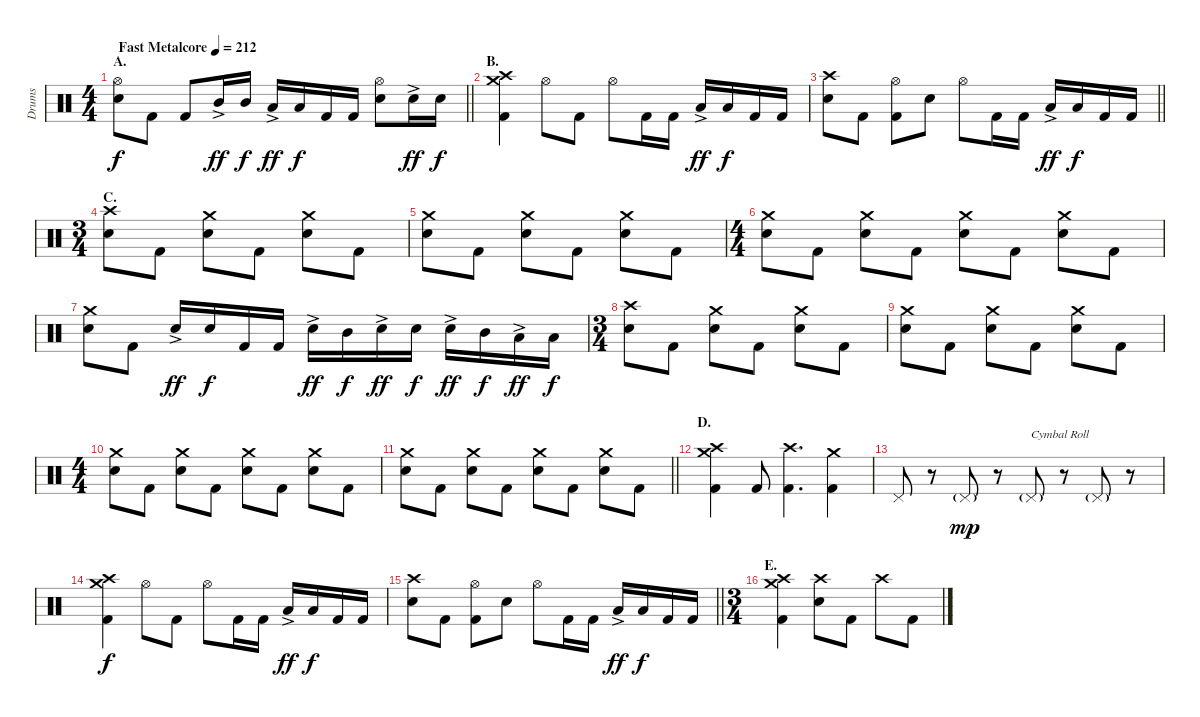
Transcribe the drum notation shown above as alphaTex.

\track ("Drums" "Drums") {instrument percussion}
\staff {score}
\articulation defaults
\ts (4 4)
\section ("" "A.")
\tempo (212 "Fast Metalcore")
\clef neutral
\barLineRight lightlight
\ks c
("Hi-Hat (open)" "Electric Snare (hit)").8{dy f} "Kick (hit) 2".8 "Kick (hit) 2".8 "Mid Tom (hit)"{ac}.16{dy ff} "Mid Tom (hit)".16{dy f} "Low Tom (hit)"{ac}.16{dy ff} "Low Tom (hit)".16{dy f} "Kick (hit) 2".16 "Kick (hit) 2".16 ("Hi-Hat (open)" "Electric Snare (hit)").8 "Electric Snare (hit)"{ac}.16{dy ff} "Electric Snare (hit)".16{dy f} |
\section ("" "B.")
("Crash medium (hit)" "Crash high (hit)" "Kick (hit) 2").4 "Hi-Hat (open)".8 "Kick (hit) 2".8 "Hi-Hat (open)".8 "Kick (hit) 2".16 "Kick (hit) 2".16 "Low Tom (hit)"{ac}.16{dy ff} "Low Tom (hit)".16{dy f} "Kick (hit) 2".16 "Kick (hit) 2".16 |
\barLineRight lightlight
("Crash high (hit)" "Electric Snare (hit)").8 "Kick (hit) 2".8 ("Hi-Hat (open)" "Kick (hit) 2").8 "Electric Snare (hit)".8 "Hi-Hat (open)".8 "Kick (hit) 2".16 "Kick (hit) 2".16 "Low Tom (hit)"{ac}.16{dy ff} "Low Tom (hit)".16{dy f} "Kick (hit) 2".16 "Kick (hit) 2".16 |
\ts (3 4)
\section ("" "C.")
("Crash high (hit)" "Electric Snare (hit)").8 "Kick (hit) 2".8 ("Crash medium (hit)" "Electric Snare (hit)").8 "Kick (hit) 2".8 ("Crash medium (hit)" "Electric Snare (hit)").8 "Kick (hit) 2".8 |
("Crash medium (hit)" "Electric Snare (hit)").8 "Kick (hit) 2".8 ("Crash medium (hit)" "Electric Snare (hit)").8 "Kick (hit) 2".8 ("Crash medium (hit)" "Electric Snare (hit)").8 "Kick (hit) 2".8 |
\ts (4 4)
("Crash medium (hit)" "Electric Snare (hit)").8 "Kick (hit) 2".8 ("Crash medium (hit)" "Electric Snare (hit)").8 "Kick (hit) 2".8 ("Crash medium (hit)" "Electric Snare (hit)").8 "Kick (hit) 2".8 ("Crash medium (hit)" "Electric Snare (hit)").8 "Kick (hit) 2".8 |
("Crash medium (hit)" "Electric Snare (hit)").8 "Kick (hit) 2".8 "Electric Snare (hit)"{ac}.16{dy ff} "Electric Snare (hit)".16{dy f} "Kick (hit) 2".16 "Kick (hit) 2".16 "Electric Snare (hit)"{ac}.16{dy ff} "Mid Tom (hit)".16{dy f} "Electric Snare (hit)"{ac}.16{dy ff} "Electric Snare (hit)".16{dy f} "Electric Snare (hit)"{ac}.16{dy ff} "Mid Tom (hit)".16{dy f} "Low Tom (hit)"{ac}.16{dy ff} "Low Tom (hit)".16{dy f} |
\ts (3 4)
("Crash high (hit)" "Electric Snare (hit)").8 "Kick (hit) 2".8 ("Crash medium (hit)" "Electric Snare (hit)").8 "Kick (hit) 2".8 ("Crash medium (hit)" "Electric Snare (hit)").8 "Kick (hit) 2".8 |
("Crash medium (hit)" "Electric Snare (hit)").8 "Kick (hit) 2".8 ("Crash medium (hit)" "Electric Snare (hit)").8 "Kick (hit) 2".8 ("Crash medium (hit)" "Electric Snare (hit)").8 "Kick (hit) 2".8 |
\ts (4 4)
("Crash medium (hit)" "Electric Snare (hit)").8 "Kick (hit) 2".8 ("Crash medium (hit)" "Electric Snare (hit)").8 "Kick (hit) 2".8 ("Crash medium (hit)" "Electric Snare (hit)").8 "Kick (hit) 2".8 ("Crash medium (hit)" "Electric Snare (hit)").8 "Kick (hit) 2".8 |
\barLineRight lightlight
("Crash medium (hit)" "Electric Snare (hit)").8 "Kick (hit) 2".8 ("Crash medium (hit)" "Electric Snare (hit)").8 "Kick (hit) 2".8 ("Crash medium (hit)" "Electric Snare (hit)").8 "Kick (hit) 2".8 ("Crash medium (hit)" "Electric Snare (hit)").8 "Kick (hit) 2".8 |
\section ("" "D.")
("Crash medium (hit)" "Crash high (hit)" "Kick (hit) 2").4 "Kick (hit) 2".8 ("Crash high (hit)" "Kick (hit) 2").4{d} ("Crash medium (hit)" "Kick (hit) 2").4 |
"Pedal Hi-Hat (hit)".8 r.8 "Pedal Hi-Hat (hit)"{g}.8{dy mp} r.8 "Pedal Hi-Hat (hit)"{g}.8{txt "Cymbal Roll"} r.8 "Pedal Hi-Hat (hit)"{g}.8 r.8 |
("Crash medium (hit)" "Crash high (hit)" "Kick (hit) 2").4{dy f} "Hi-Hat (open)".8 "Kick (hit) 2".8 "Hi-Hat (open)".8 "Kick (hit) 2".16 "Kick (hit) 2".16 "Low Tom (hit)"{ac}.16{dy ff} "Low Tom (hit)".16{dy f} "Kick (hit) 2".16 "Kick (hit) 2".16 |
\barLineRight lightlight
("Crash high (hit)" "Electric Snare (hit)").8 "Kick (hit) 2".8 ("Hi-Hat (open)" "Kick (hit) 2").8 "Electric Snare (hit)".8 "Hi-Hat (open)".8 "Kick (hit) 2".16 "Kick (hit) 2".16 "Low Tom (hit)"{ac}.16{dy ff} "Low Tom (hit)".16{dy f} "Kick (hit) 2".16 "Kick (hit) 2".16 |
\ts (3 4)
\section ("" "E.")
("Crash medium (hit)" "Crash high (hit)" "Kick (hit) 2").4 ("Crash high (hit)" "Electric Snare (hit)").8 "Kick (hit) 2".8 "Crash high (hit)".8 "Kick (hit) 2".8
